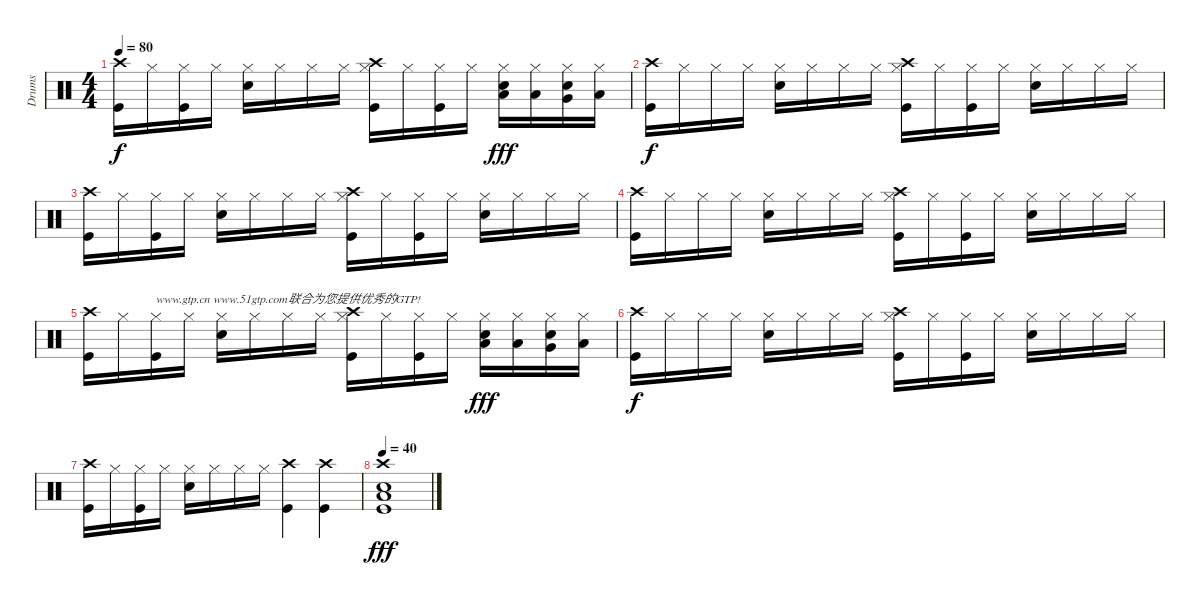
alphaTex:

\track ("Drums" "Drums") {instrument percussion}
\staff {score}
\articulation defaults
\ts (4 4)
\tempo 80
\clef neutral
\ks c
("Crash high (hit)" "Kick (hit)").16{dy f} "Hi-Hat (closed)".16 ("Hi-Hat (closed)" "Kick (hit)").16 "Hi-Hat (closed)".16 ("Hi-Hat (closed)" "Snare (hit) 2").16 "Hi-Hat (closed)".16 "Hi-Hat (closed)".16 "Hi-Hat (closed)".16 ("Crash high (hit)" "Hi-Hat (closed)" "Kick (hit)").16 "Hi-Hat (closed)".16 ("Hi-Hat (closed)" "Kick (hit)").16 "Hi-Hat (closed)".16 ("Hi-Hat (closed)" "Snare (hit) 2" "Low Tom (hit)").16{dy fff} ("Hi-Hat (closed)" "Low Tom (hit)").16 ("Hi-Hat (closed)" "Snare (hit) 2" "Very Low Tom (hit)").16 ("Hi-Hat (closed)" "Low Floor Tom (hit)").16 |
("Crash high (hit)" "Kick (hit)").16{dy f} "Hi-Hat (closed)".16 "Hi-Hat (closed)".16 "Hi-Hat (closed)".16 ("Hi-Hat (closed)" "Snare (hit) 2").16 "Hi-Hat (closed)".16 "Hi-Hat (closed)".16 "Hi-Hat (closed)".16 ("Crash high (hit)" "Hi-Hat (closed)" "Kick (hit)").16 "Hi-Hat (closed)".16 ("Hi-Hat (closed)" "Kick (hit)").16 "Hi-Hat (closed)".16 ("Hi-Hat (closed)" "Snare (hit) 2").16 "Hi-Hat (closed)".16 "Hi-Hat (closed)".16 "Hi-Hat (closed)".16 |
("Crash high (hit)" "Kick (hit)").16 "Hi-Hat (closed)".16 ("Hi-Hat (closed)" "Kick (hit)").16 "Hi-Hat (closed)".16 ("Hi-Hat (closed)" "Snare (hit) 2").16 "Hi-Hat (closed)".16 "Hi-Hat (closed)".16 "Hi-Hat (closed)".16 ("Crash high (hit)" "Hi-Hat (closed)" "Kick (hit)").16 "Hi-Hat (closed)".16 ("Hi-Hat (closed)" "Kick (hit)").16 "Hi-Hat (closed)".16 ("Hi-Hat (closed)" "Snare (hit) 2").16 "Hi-Hat (closed)".16 "Hi-Hat (closed)".16 "Hi-Hat (closed)".16 |
("Crash high (hit)" "Kick (hit)").16 "Hi-Hat (closed)".16 "Hi-Hat (closed)".16 "Hi-Hat (closed)".16 ("Hi-Hat (closed)" "Snare (hit) 2").16 "Hi-Hat (closed)".16 "Hi-Hat (closed)".16 "Hi-Hat (closed)".16 ("Crash high (hit)" "Hi-Hat (closed)" "Kick (hit)").16 "Hi-Hat (closed)".16 ("Hi-Hat (closed)" "Kick (hit)").16 "Hi-Hat (closed)".16 ("Hi-Hat (closed)" "Snare (hit) 2").16 "Hi-Hat (closed)".16 "Hi-Hat (closed)".16 "Hi-Hat (closed)".16 |
("Crash high (hit)" "Kick (hit)").16 "Hi-Hat (closed)".16 ("Hi-Hat (closed)" "Kick (hit)").16{txt "www.gtp.cn www.51gtp.com联合为您提供优秀的GTP!"} "Hi-Hat (closed)".16 ("Hi-Hat (closed)" "Snare (hit) 2").16 "Hi-Hat (closed)".16 "Hi-Hat (closed)".16 "Hi-Hat (closed)".16 ("Crash high (hit)" "Hi-Hat (closed)" "Kick (hit)").16 "Hi-Hat (closed)".16 ("Hi-Hat (closed)" "Kick (hit)").16 "Hi-Hat (closed)".16 ("Hi-Hat (closed)" "Snare (hit) 2" "Low Tom (hit)").16{dy fff} ("Hi-Hat (closed)" "Low Tom (hit)").16 ("Hi-Hat (closed)" "Snare (hit) 2" "Very Low Tom (hit)").16 ("Hi-Hat (closed)" "Low Floor Tom (hit)").16 |
("Crash high (hit)" "Kick (hit)").16{dy f} "Hi-Hat (closed)".16 "Hi-Hat (closed)".16 "Hi-Hat (closed)".16 ("Hi-Hat (closed)" "Snare (hit) 2").16 "Hi-Hat (closed)".16 "Hi-Hat (closed)".16 "Hi-Hat (closed)".16 ("Crash high (hit)" "Hi-Hat (closed)" "Kick (hit)").16 "Hi-Hat (closed)".16 ("Hi-Hat (closed)" "Kick (hit)").16 "Hi-Hat (closed)".16 ("Hi-Hat (closed)" "Snare (hit) 2").16 "Hi-Hat (closed)".16 "Hi-Hat (closed)".16 "Hi-Hat (closed)".16 |
("Crash high (hit)" "Kick (hit)").16 "Hi-Hat (closed)".16 ("Hi-Hat (closed)" "Kick (hit)").16 "Hi-Hat (closed)".16 ("Hi-Hat (closed)" "Snare (hit) 2").16 "Hi-Hat (closed)".16 "Hi-Hat (closed)".16 "Hi-Hat (closed)".16 ("Crash high (hit)" "Kick (hit)").4 ("Crash high (hit)" "Kick (hit)").4 |
\tempo 40
("Crash high (hit)" "Low Floor Tom (hit)" "Snare (hit) 2" "Kick (hit)").1{dy fff}
